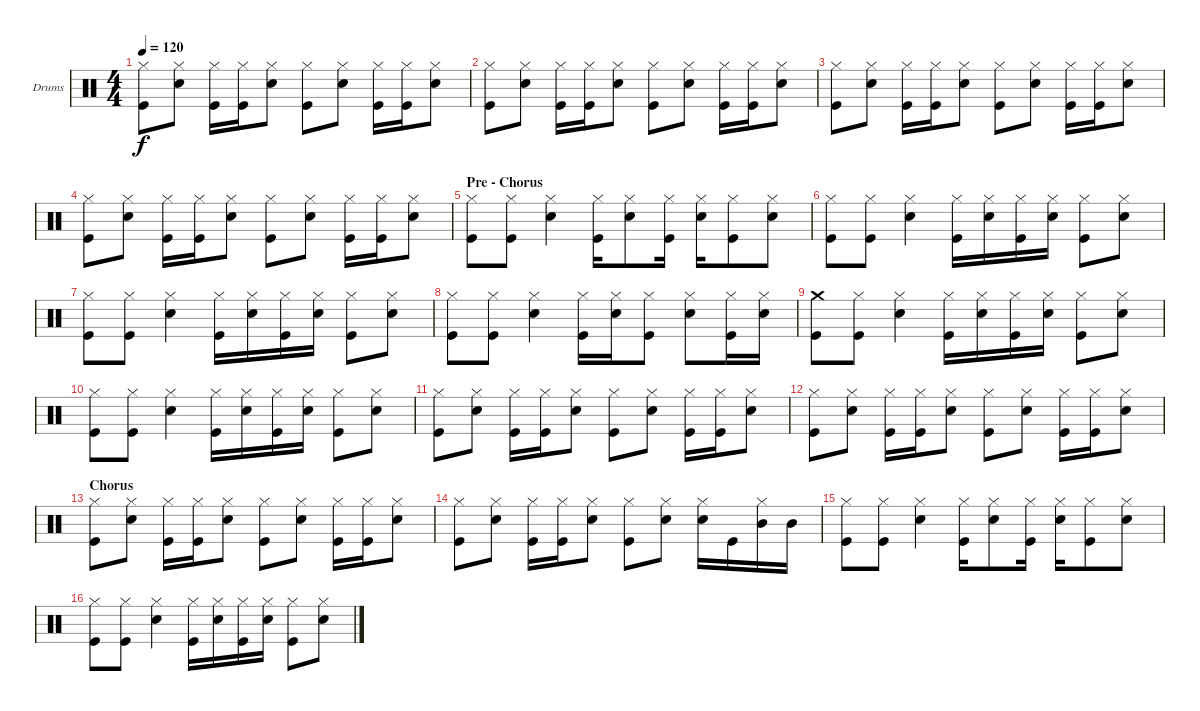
\defaultSystemsLayout 4
\bracketExtendMode groupsimilarinstruments
\firstSystemTrackNameOrientation horizontal
\otherSystemsTrackNameOrientation horizontal
\track ("Drumkit" "Drums") {instrument percussion}
\staff {score}
\articulation defaults
\ts (4 4)
\tempo 120
\clef neutral
\ks c
("Hi-Hat (closed)" "Kick (hit)").8{dy f} ("Hi-Hat (closed)" "Snare (hit) 2").8 ("Hi-Hat (closed)" "Kick (hit)").16 ("Hi-Hat (closed)" "Kick (hit)").16 ("Hi-Hat (closed)" "Snare (hit) 2").8 ("Hi-Hat (closed)" "Kick (hit)").8 ("Hi-Hat (closed)" "Snare (hit) 2").8 ("Hi-Hat (closed)" "Kick (hit)").16 ("Hi-Hat (closed)" "Kick (hit)").16 ("Hi-Hat (closed)" "Snare (hit) 2").8 |
("Hi-Hat (closed)" "Kick (hit)").8 ("Hi-Hat (closed)" "Snare (hit) 2").8 ("Hi-Hat (closed)" "Kick (hit)").16 ("Hi-Hat (closed)" "Kick (hit)").16 ("Hi-Hat (closed)" "Snare (hit) 2").8 ("Hi-Hat (closed)" "Kick (hit)").8 ("Hi-Hat (closed)" "Snare (hit) 2").8 ("Hi-Hat (closed)" "Kick (hit)").16 ("Hi-Hat (closed)" "Kick (hit)").16 ("Hi-Hat (closed)" "Snare (hit) 2").8 |
("Hi-Hat (closed)" "Kick (hit)").8 ("Hi-Hat (closed)" "Snare (hit) 2").8 ("Hi-Hat (closed)" "Kick (hit)").16 ("Hi-Hat (closed)" "Kick (hit)").16 ("Hi-Hat (closed)" "Snare (hit) 2").8 ("Hi-Hat (closed)" "Kick (hit)").8 ("Hi-Hat (closed)" "Snare (hit) 2").8 ("Hi-Hat (closed)" "Kick (hit)").16 ("Hi-Hat (closed)" "Kick (hit)").16 ("Hi-Hat (closed)" "Snare (hit) 2").8 |
("Hi-Hat (closed)" "Kick (hit)").8 ("Hi-Hat (closed)" "Snare (hit) 2").8 ("Hi-Hat (closed)" "Kick (hit)").16 ("Hi-Hat (closed)" "Kick (hit)").16 ("Hi-Hat (closed)" "Snare (hit) 2").8 ("Hi-Hat (closed)" "Kick (hit)").8 ("Hi-Hat (closed)" "Snare (hit) 2").8 ("Hi-Hat (closed)" "Kick (hit)").16 ("Hi-Hat (closed)" "Kick (hit)").16 ("Hi-Hat (closed)" "Snare (hit) 2").8 |
\section ("" "Pre - Chorus")
("Hi-Hat (closed)" "Kick (hit)").8 ("Hi-Hat (closed)" "Kick (hit)").8 ("Hi-Hat (closed)" "Snare (hit) 2").4 ("Hi-Hat (closed)" "Kick (hit)").16 ("Hi-Hat (closed)" "Snare (hit) 2").8 ("Hi-Hat (closed)" "Kick (hit)").16 ("Hi-Hat (closed)" "Snare (hit) 2").16 ("Hi-Hat (closed)" "Kick (hit)").8 ("Hi-Hat (closed)" "Snare (hit) 2").8 |
("Hi-Hat (closed)" "Kick (hit)").8 ("Hi-Hat (closed)" "Kick (hit)").8 ("Hi-Hat (closed)" "Snare (hit) 2").4 ("Hi-Hat (closed)" "Kick (hit)").16 ("Hi-Hat (closed)" "Snare (hit) 2").16 ("Hi-Hat (closed)" "Kick (hit)").16 ("Hi-Hat (closed)" "Snare (hit) 2").16 ("Hi-Hat (closed)" "Kick (hit)").8 ("Hi-Hat (closed)" "Snare (hit) 2").8 |
("Hi-Hat (closed)" "Kick (hit)").8 ("Hi-Hat (closed)" "Kick (hit)").8 ("Hi-Hat (closed)" "Snare (hit) 2").4 ("Hi-Hat (closed)" "Kick (hit)").16 ("Hi-Hat (closed)" "Snare (hit) 2").16 ("Hi-Hat (closed)" "Kick (hit)").16 ("Hi-Hat (closed)" "Snare (hit) 2").16 ("Hi-Hat (closed)" "Kick (hit)").8 ("Hi-Hat (closed)" "Snare (hit) 2").8 |
("Hi-Hat (closed)" "Kick (hit)").8 ("Hi-Hat (closed)" "Kick (hit)").8 ("Hi-Hat (closed)" "Snare (hit) 2").4 ("Hi-Hat (closed)" "Kick (hit)").16 ("Hi-Hat (closed)" "Snare (hit) 2").16 ("Hi-Hat (closed)" "Kick (hit)").8 ("Hi-Hat (closed)" "Snare (hit) 2").8 ("Hi-Hat (closed)" "Kick (hit)").16 ("Hi-Hat (closed)" "Snare (hit) 2").16 |
("Crash medium (hit)" "Kick (hit)").8 ("Hi-Hat (closed)" "Kick (hit)").8 ("Hi-Hat (closed)" "Snare (hit) 2").4 ("Hi-Hat (closed)" "Kick (hit)").16 ("Hi-Hat (closed)" "Snare (hit) 2").16 ("Hi-Hat (closed)" "Kick (hit)").16 ("Hi-Hat (closed)" "Snare (hit) 2").16 ("Hi-Hat (closed)" "Kick (hit)").8 ("Hi-Hat (closed)" "Snare (hit) 2").8 |
("Hi-Hat (closed)" "Kick (hit)").8 ("Hi-Hat (closed)" "Kick (hit)").8 ("Hi-Hat (closed)" "Snare (hit) 2").4 ("Hi-Hat (closed)" "Kick (hit)").16 ("Hi-Hat (closed)" "Snare (hit) 2").16 ("Hi-Hat (closed)" "Kick (hit)").16 ("Hi-Hat (closed)" "Snare (hit) 2").16 ("Hi-Hat (closed)" "Kick (hit)").8 ("Hi-Hat (closed)" "Snare (hit) 2").8 |
("Hi-Hat (closed)" "Kick (hit)").8 ("Hi-Hat (closed)" "Snare (hit) 2").8 ("Hi-Hat (closed)" "Kick (hit)").16 ("Hi-Hat (closed)" "Kick (hit)").16 ("Hi-Hat (closed)" "Snare (hit) 2").8 ("Hi-Hat (closed)" "Kick (hit)").8 ("Hi-Hat (closed)" "Snare (hit) 2").8 ("Hi-Hat (closed)" "Kick (hit)").16 ("Hi-Hat (closed)" "Kick (hit)").16 ("Hi-Hat (closed)" "Snare (hit) 2").8 |
("Hi-Hat (closed)" "Kick (hit)").8 ("Hi-Hat (closed)" "Snare (hit) 2").8 ("Hi-Hat (closed)" "Kick (hit)").16 ("Hi-Hat (closed)" "Kick (hit)").16 ("Hi-Hat (closed)" "Snare (hit) 2").8 ("Hi-Hat (closed)" "Kick (hit)").8 ("Hi-Hat (closed)" "Snare (hit) 2").8 ("Hi-Hat (closed)" "Kick (hit)").16 ("Hi-Hat (closed)" "Kick (hit)").16 ("Hi-Hat (closed)" "Snare (hit) 2").8 |
\section ("" "Chorus")
("Hi-Hat (closed)" "Kick (hit)").8 ("Hi-Hat (closed)" "Snare (hit) 2").8 ("Hi-Hat (closed)" "Kick (hit)").16 ("Hi-Hat (closed)" "Kick (hit)").16 ("Hi-Hat (closed)" "Snare (hit) 2").8 ("Hi-Hat (closed)" "Kick (hit)").8 ("Hi-Hat (closed)" "Snare (hit) 2").8 ("Hi-Hat (closed)" "Kick (hit)").16 ("Hi-Hat (closed)" "Kick (hit)").16 ("Hi-Hat (closed)" "Snare (hit) 2").8 |
("Hi-Hat (closed)" "Kick (hit)").8 ("Hi-Hat (closed)" "Snare (hit) 2").8 ("Hi-Hat (closed)" "Kick (hit)").16 ("Hi-Hat (closed)" "Kick (hit)").16 ("Hi-Hat (closed)" "Snare (hit) 2").8 ("Hi-Hat (closed)" "Kick (hit)").8 ("Hi-Hat (closed)" "Snare (hit) 2").8 ("Hi-Hat (closed)" "Snare (hit) 2").16 "Kick (hit)".16 ("Hi-Hat (closed)" "Mid Tom (hit)").16 "Mid Tom (hit)".16 |
("Hi-Hat (closed)" "Kick (hit)").8 ("Hi-Hat (closed)" "Kick (hit)").8 ("Hi-Hat (closed)" "Snare (hit) 2").4 ("Hi-Hat (closed)" "Kick (hit)").16 ("Hi-Hat (closed)" "Snare (hit) 2").8 ("Hi-Hat (closed)" "Kick (hit)").16 ("Hi-Hat (closed)" "Snare (hit) 2").16 ("Hi-Hat (closed)" "Kick (hit)").8 ("Hi-Hat (closed)" "Snare (hit) 2").8 |
("Hi-Hat (closed)" "Kick (hit)").8 ("Hi-Hat (closed)" "Kick (hit)").8 ("Hi-Hat (closed)" "Snare (hit) 2").4 ("Hi-Hat (closed)" "Kick (hit)").16 ("Hi-Hat (closed)" "Snare (hit) 2").16 ("Hi-Hat (closed)" "Kick (hit)").16 ("Hi-Hat (closed)" "Snare (hit) 2").16 ("Hi-Hat (closed)" "Kick (hit)").8 ("Hi-Hat (closed)" "Snare (hit) 2").8
